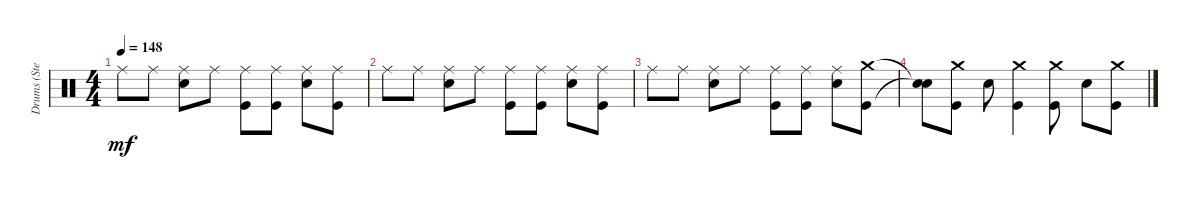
\track ("Drums (Steven)" "Drums (Ste") {instrument percussion}
\staff {score}
\articulation defaults
\ts (4 4)
\tempo 148
\clef neutral
\ks c "Ride (middle)".8{dy mf volume 0} "Ride (middle)".8
("Snare (hit) 2" "Ride (middle)").8 "Ride (middle)".8 ("Kick (hit)" "Ride (middle)").8 ("Kick (hit)" "Ride (middle)").8 ("Snare (hit) 2" "Ride (middle)").8 ("Kick (hit)" "Ride (middle)").8 |
"Ride (middle)".8 "Ride (middle)".8 ("Snare (hit) 2" "Ride (middle)").8 "Ride (middle)".8 ("Kick (hit)" "Ride (middle)").8 ("Kick (hit)" "Ride (middle)").8 ("Snare (hit) 2" "Ride (middle)").8 ("Kick (hit)" "Ride (middle)").8 |
"Ride (middle)".8 "Ride (middle)".8 ("Snare (hit) 2" "Ride (middle)").8 "Ride (middle)".8 ("Kick (hit)" "Ride (middle)").8 ("Kick (hit)" "Ride (middle)").8 ("Snare (hit) 2" "Ride (middle)").8 ("Kick (hit)" "Crash medium (hit)").8 |
("Snare (hit)"{t} "Snare (hit)"{t}).8 ("Kick (hit)" "Crash medium (hit)").8 "Snare (hit) 2".8 ("Kick (hit)" "Crash medium (hit)").4 ("Kick (hit)" "Crash medium (hit)").8 "Snare (hit) 2".8 ("Kick (hit)" "Crash medium (hit)").8
